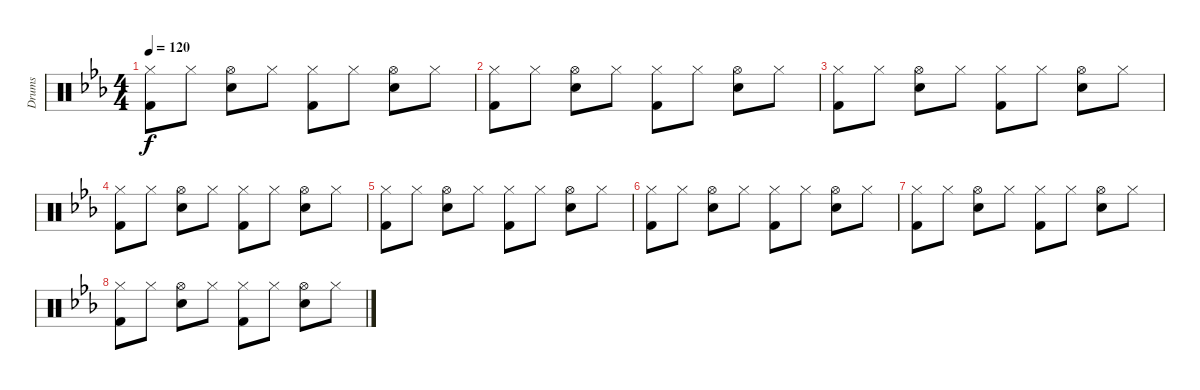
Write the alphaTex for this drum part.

\track ("Drums" "Drums") {instrument percussion}
\staff {score}
\articulation defaults
\ts (4 4)
\tempo 120
\clef neutral
\ks eb
("Hi-Hat (closed)" "Kick (hit) 2").8{dy f} "Hi-Hat (closed)".8 ("Hi-Hat (open)" "Snare (hit) 2").8 "Hi-Hat (closed)".8 ("Hi-Hat (closed)" "Kick (hit) 2").8 "Hi-Hat (closed)".8 ("Hi-Hat (open)" "Snare (hit) 2").8 "Hi-Hat (closed)".8 |
("Hi-Hat (closed)" "Kick (hit) 2").8 "Hi-Hat (closed)".8 ("Hi-Hat (open)" "Snare (hit) 2").8 "Hi-Hat (closed)".8 ("Hi-Hat (closed)" "Kick (hit) 2").8 "Hi-Hat (closed)".8 ("Hi-Hat (open)" "Snare (hit) 2").8 "Hi-Hat (closed)".8 |
("Hi-Hat (closed)" "Kick (hit) 2").8 "Hi-Hat (closed)".8 ("Hi-Hat (open)" "Snare (hit) 2").8 "Hi-Hat (closed)".8 ("Hi-Hat (closed)" "Kick (hit) 2").8 "Hi-Hat (closed)".8 ("Hi-Hat (open)" "Snare (hit) 2").8 "Hi-Hat (closed)".8 |
("Hi-Hat (closed)" "Kick (hit) 2").8 "Hi-Hat (closed)".8 ("Hi-Hat (open)" "Snare (hit) 2").8 "Hi-Hat (closed)".8 ("Hi-Hat (closed)" "Kick (hit) 2").8 "Hi-Hat (closed)".8 ("Hi-Hat (open)" "Snare (hit) 2").8 "Hi-Hat (closed)".8 |
("Hi-Hat (closed)" "Kick (hit) 2").8 "Hi-Hat (closed)".8 ("Hi-Hat (open)" "Snare (hit) 2").8 "Hi-Hat (closed)".8 ("Hi-Hat (closed)" "Kick (hit) 2").8 "Hi-Hat (closed)".8 ("Hi-Hat (open)" "Snare (hit) 2").8 "Hi-Hat (closed)".8 |
("Hi-Hat (closed)" "Kick (hit) 2").8 "Hi-Hat (closed)".8 ("Hi-Hat (open)" "Snare (hit) 2").8 "Hi-Hat (closed)".8 ("Hi-Hat (closed)" "Kick (hit) 2").8 "Hi-Hat (closed)".8 ("Hi-Hat (open)" "Snare (hit) 2").8 "Hi-Hat (closed)".8 |
("Hi-Hat (closed)" "Kick (hit) 2").8 "Hi-Hat (closed)".8 ("Hi-Hat (open)" "Snare (hit) 2").8 "Hi-Hat (closed)".8 ("Hi-Hat (closed)" "Kick (hit) 2").8 "Hi-Hat (closed)".8 ("Hi-Hat (open)" "Snare (hit) 2").8 "Hi-Hat (closed)".8 |
("Hi-Hat (closed)" "Kick (hit) 2").8 "Hi-Hat (closed)".8 ("Hi-Hat (open)" "Snare (hit) 2").8 "Hi-Hat (closed)".8 ("Hi-Hat (closed)" "Kick (hit) 2").8 "Hi-Hat (closed)".8 ("Hi-Hat (open)" "Snare (hit) 2").8 "Hi-Hat (closed)".8
